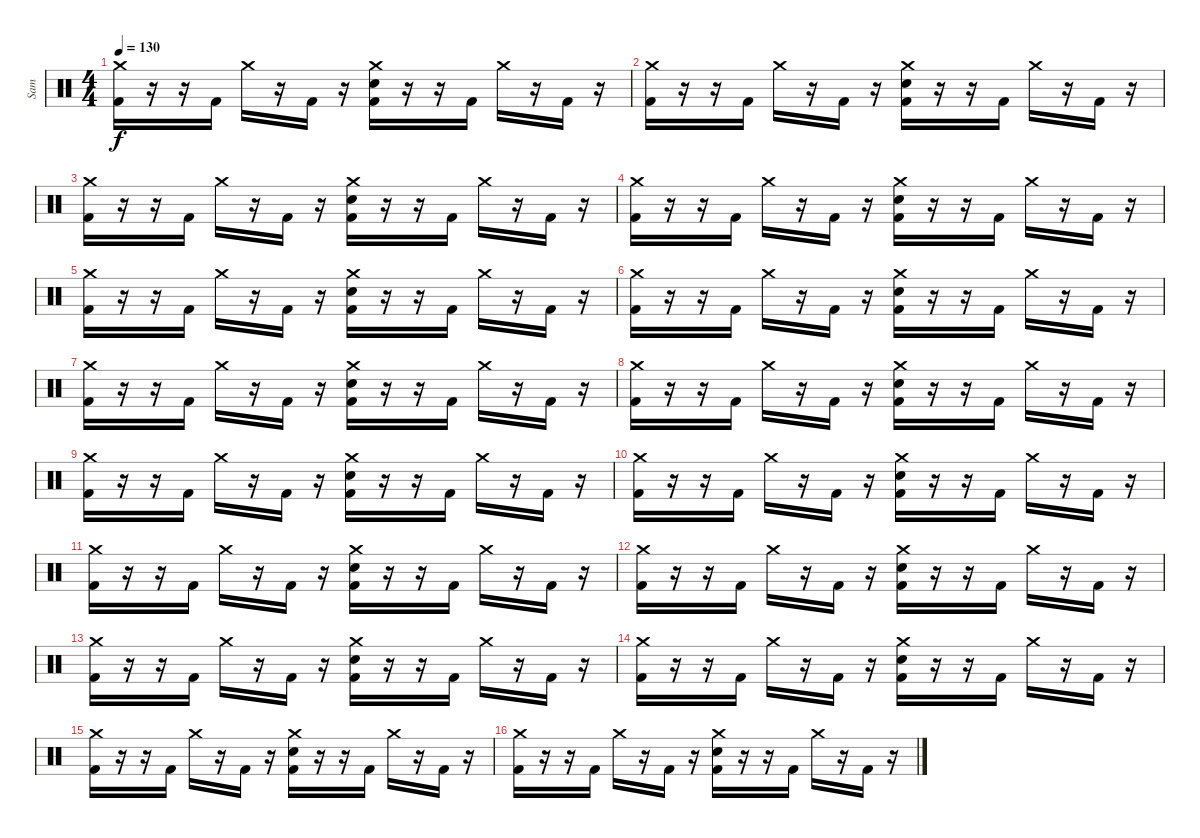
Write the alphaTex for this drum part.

\track ("Sam" "Sam") {instrument percussion}
\staff {score}
\articulation defaults
\ts (4 4)
\tempo 130
\clef neutral
\ks c
("Crash medium (hit)" "Kick (hit) 2").16{dy f} r.16 r.16 "Kick (hit) 2".16 "Crash medium (hit)".16 r.16 "Kick (hit) 2".16 r.16 ("Crash medium (hit)" "Electric Snare (hit)" "Kick (hit) 2").16 r.16 r.16 "Kick (hit) 2".16 "Crash medium (hit)".16 r.16 "Kick (hit) 2".16 r.16 |
("Crash medium (hit)" "Kick (hit) 2").16 r.16 r.16 "Kick (hit) 2".16 "Crash medium (hit)".16 r.16 "Kick (hit) 2".16 r.16 ("Crash medium (hit)" "Electric Snare (hit)" "Kick (hit) 2").16 r.16 r.16 "Kick (hit) 2".16 "Crash medium (hit)".16 r.16 "Kick (hit) 2".16 r.16 |
("Crash medium (hit)" "Kick (hit) 2").16 r.16 r.16 "Kick (hit) 2".16 "Crash medium (hit)".16 r.16 "Kick (hit) 2".16 r.16 ("Crash medium (hit)" "Electric Snare (hit)" "Kick (hit) 2").16 r.16 r.16 "Kick (hit) 2".16 "Crash medium (hit)".16 r.16 "Kick (hit) 2".16 r.16 |
("Crash medium (hit)" "Kick (hit) 2").16 r.16 r.16 "Kick (hit) 2".16 "Crash medium (hit)".16 r.16 "Kick (hit) 2".16 r.16 ("Crash medium (hit)" "Electric Snare (hit)" "Kick (hit) 2").16 r.16 r.16 "Kick (hit) 2".16 "Crash medium (hit)".16 r.16 "Kick (hit) 2".16 r.16 |
("Crash medium (hit)" "Kick (hit) 2").16 r.16 r.16 "Kick (hit) 2".16 "Crash medium (hit)".16 r.16 "Kick (hit) 2".16 r.16 ("Crash medium (hit)" "Electric Snare (hit)" "Kick (hit) 2").16 r.16 r.16 "Kick (hit) 2".16 "Crash medium (hit)".16 r.16 "Kick (hit) 2".16 r.16 |
("Crash medium (hit)" "Kick (hit) 2").16 r.16 r.16 "Kick (hit) 2".16 "Crash medium (hit)".16 r.16 "Kick (hit) 2".16 r.16 ("Crash medium (hit)" "Electric Snare (hit)" "Kick (hit) 2").16 r.16 r.16 "Kick (hit) 2".16 "Crash medium (hit)".16 r.16 "Kick (hit) 2".16 r.16 |
("Crash medium (hit)" "Kick (hit) 2").16 r.16 r.16 "Kick (hit) 2".16 "Crash medium (hit)".16 r.16 "Kick (hit) 2".16 r.16 ("Crash medium (hit)" "Electric Snare (hit)" "Kick (hit) 2").16 r.16 r.16 "Kick (hit) 2".16 "Crash medium (hit)".16 r.16 "Kick (hit) 2".16 r.16 |
("Crash medium (hit)" "Kick (hit) 2").16 r.16 r.16 "Kick (hit) 2".16 "Crash medium (hit)".16 r.16 "Kick (hit) 2".16 r.16 ("Crash medium (hit)" "Electric Snare (hit)" "Kick (hit) 2").16 r.16 r.16 "Kick (hit) 2".16 "Crash medium (hit)".16 r.16 "Kick (hit) 2".16 r.16 |
("Crash medium (hit)" "Kick (hit) 2").16 r.16 r.16 "Kick (hit) 2".16 "Crash medium (hit)".16 r.16 "Kick (hit) 2".16 r.16 ("Crash medium (hit)" "Electric Snare (hit)" "Kick (hit) 2").16 r.16 r.16 "Kick (hit) 2".16 "Crash medium (hit)".16 r.16 "Kick (hit) 2".16 r.16 |
("Crash medium (hit)" "Kick (hit) 2").16 r.16 r.16 "Kick (hit) 2".16 "Crash medium (hit)".16 r.16 "Kick (hit) 2".16 r.16 ("Crash medium (hit)" "Electric Snare (hit)" "Kick (hit) 2").16 r.16 r.16 "Kick (hit) 2".16 "Crash medium (hit)".16 r.16 "Kick (hit) 2".16 r.16 |
("Crash medium (hit)" "Kick (hit) 2").16 r.16 r.16 "Kick (hit) 2".16 "Crash medium (hit)".16 r.16 "Kick (hit) 2".16 r.16 ("Crash medium (hit)" "Electric Snare (hit)" "Kick (hit) 2").16 r.16 r.16 "Kick (hit) 2".16 "Crash medium (hit)".16 r.16 "Kick (hit) 2".16 r.16 |
("Crash medium (hit)" "Kick (hit) 2").16 r.16 r.16 "Kick (hit) 2".16 "Crash medium (hit)".16 r.16 "Kick (hit) 2".16 r.16 ("Crash medium (hit)" "Electric Snare (hit)" "Kick (hit) 2").16 r.16 r.16 "Kick (hit) 2".16 "Crash medium (hit)".16 r.16 "Kick (hit) 2".16 r.16 |
("Crash medium (hit)" "Kick (hit) 2").16 r.16 r.16 "Kick (hit) 2".16 "Crash medium (hit)".16 r.16 "Kick (hit) 2".16 r.16 ("Crash medium (hit)" "Electric Snare (hit)" "Kick (hit) 2").16 r.16 r.16 "Kick (hit) 2".16 "Crash medium (hit)".16 r.16 "Kick (hit) 2".16 r.16 |
("Crash medium (hit)" "Kick (hit) 2").16 r.16 r.16 "Kick (hit) 2".16 "Crash medium (hit)".16 r.16 "Kick (hit) 2".16 r.16 ("Crash medium (hit)" "Electric Snare (hit)" "Kick (hit) 2").16 r.16 r.16 "Kick (hit) 2".16 "Crash medium (hit)".16 r.16 "Kick (hit) 2".16 r.16 |
("Crash medium (hit)" "Kick (hit) 2").16 r.16 r.16 "Kick (hit) 2".16 "Crash medium (hit)".16 r.16 "Kick (hit) 2".16 r.16 ("Crash medium (hit)" "Electric Snare (hit)" "Kick (hit) 2").16 r.16 r.16 "Kick (hit) 2".16 "Crash medium (hit)".16 r.16 "Kick (hit) 2".16 r.16 |
("Crash medium (hit)" "Kick (hit) 2").16 r.16 r.16 "Kick (hit) 2".16 "Crash medium (hit)".16 r.16 "Kick (hit) 2".16 r.16 ("Crash medium (hit)" "Electric Snare (hit)" "Kick (hit) 2").16 r.16 r.16 "Kick (hit) 2".16 "Crash medium (hit)".16 r.16 "Kick (hit) 2".16 r.16
